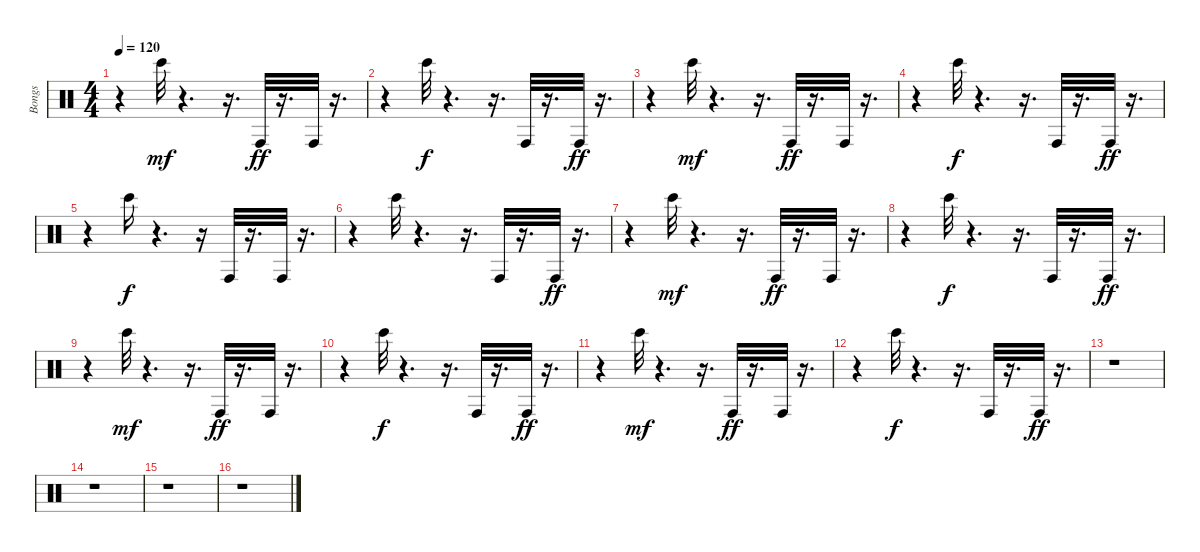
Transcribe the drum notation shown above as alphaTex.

\track ("Bongs" "Bongs") {instrument percussion}
\staff {score}
\articulation defaults
\ts (4 4)
\tempo 120
\clef neutral
\ks c
r.4{dy ff} "Bongo High (hit)".32{dy mf} r.4{d} r.16{d} "Conga high (hit)".32{dy ff} r.16{d} "Conga high (hit)".32 r.16{d} |
r.4 "Bongo High (hit)".32{dy f} r.4{d} r.16{d} "Conga high (hit)".32 r.16{d} "Conga high (hit)".32{dy ff} r.16{d} |
r.4 "Bongo High (hit)".32{dy mf} r.4{d} r.16{d} "Conga high (hit)".32{dy ff} r.16{d} "Conga high (hit)".32 r.16{d} |
r.4 "Bongo High (hit)".32{dy f} r.4{d} r.16{d} "Conga high (hit)".32 r.16{d} "Conga high (hit)".32{dy ff} r.16{d} |
r.4 "Bongo High (hit)".16{dy f} r.4{d} r.16 "Conga high (hit)".32 r.16{d} "Conga high (hit)".32 r.16{d} |
r.4 "Bongo High (hit)".32 r.4{d} r.16{d} "Conga high (hit)".32 r.16{d} "Conga high (hit)".32{dy ff} r.16{d} |
r.4 "Bongo High (hit)".32{dy mf} r.4{d} r.16{d} "Conga high (hit)".32{dy ff} r.16{d} "Conga high (hit)".32 r.16{d} |
r.4 "Bongo High (hit)".32{dy f} r.4{d} r.16{d} "Conga high (hit)".32 r.16{d} "Conga high (hit)".32{dy ff} r.16{d} |
r.4 "Bongo High (hit)".32{dy mf} r.4{d} r.16{d} "Conga high (hit)".32{dy ff} r.16{d} "Conga high (hit)".32 r.16{d} |
r.4 "Bongo High (hit)".32{dy f} r.4{d} r.16{d} "Conga high (hit)".32 r.16{d} "Conga high (hit)".32{dy ff} r.16{d} |
r.4 "Bongo High (hit)".32{dy mf} r.4{d} r.16{d} "Conga high (hit)".32{dy ff} r.16{d} "Conga high (hit)".32 r.16{d} |
r.4 "Bongo High (hit)".32{dy f} r.4{d} r.16{d} "Conga high (hit)".32 r.16{d} "Conga high (hit)".32{dy ff} r.16{d} |
r.1 |
r.1 |
r.1 |
r.1
